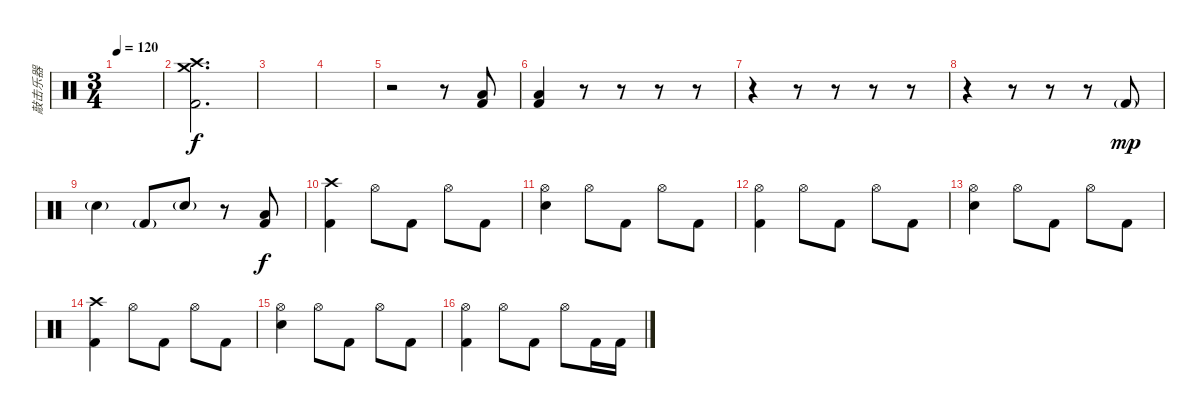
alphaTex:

\track ("敲击乐器" "敲击乐器") {instrument percussion}
\staff {score}
\articulation defaults
\ts (3 4)
\tempo 120
\clef neutral
\ks c
|
("Kick (hit) 2" "Crash high (hit)" "Crash medium (hit)").2{d} |
|
|
r.2 r.8 ("Kick (hit) 2" "Low Floor Tom (hit)").8 |
("Kick (hit) 2" "Low Floor Tom (hit)").4 r.8 r.8 r.8 r.8 |
r.4 r.8 r.8 r.8 r.8 |
r.4 r.8 r.8 r.8 "Kick (hit) 2"{g}.8{dy mp} |
"Electric Snare (hit)"{g}.4 "Kick (hit) 2"{g}.8 "Electric Snare (hit)"{g}.8 r.8 ("Kick (hit) 2" "Low Floor Tom (hit)").8{dy f} |
("Crash high (hit)" "Kick (hit) 2").4 "Hi-Hat (open)".8 "Kick (hit) 2".8 "Hi-Hat (open)".8 "Kick (hit) 2".8 |
("Hi-Hat (open)" "Snare (hit) 2").4 "Hi-Hat (open)".8 "Kick (hit) 2".8 "Hi-Hat (open)".8 "Kick (hit) 2".8 |
("Hi-Hat (open)" "Kick (hit) 2").4 "Hi-Hat (open)".8 "Kick (hit) 2".8 "Hi-Hat (open)".8 "Kick (hit) 2".8 |
("Hi-Hat (open)" "Snare (hit) 2").4 "Hi-Hat (open)".8 "Kick (hit) 2".8 "Hi-Hat (open)".8 "Kick (hit) 2".8 |
("Crash high (hit)" "Kick (hit) 2").4 "Hi-Hat (open)".8 "Kick (hit) 2".8 "Hi-Hat (open)".8 "Kick (hit) 2".8 |
("Hi-Hat (open)" "Snare (hit) 2").4 "Hi-Hat (open)".8 "Kick (hit) 2".8 "Hi-Hat (open)".8 "Kick (hit) 2".8 |
("Hi-Hat (open)" "Kick (hit) 2").4 "Hi-Hat (open)".8 "Kick (hit) 2".8 "Hi-Hat (open)".8 "Kick (hit) 2".16 "Kick (hit) 2".16
